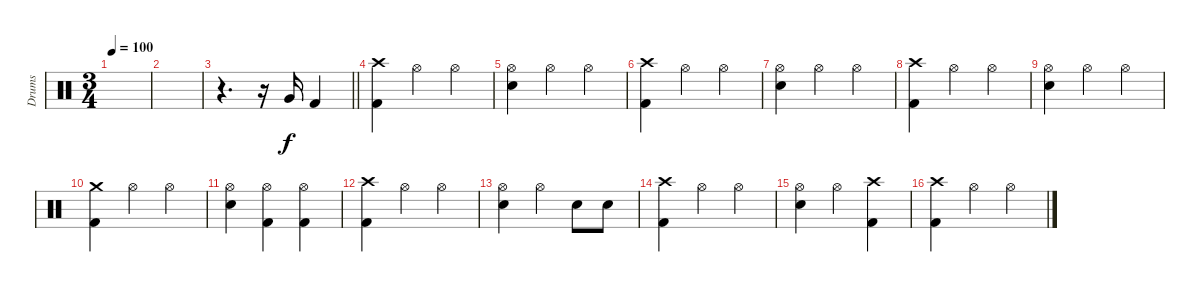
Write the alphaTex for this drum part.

\track ("Drums" "Drums") {instrument percussion}
\staff {score}
\articulation defaults
\ts (3 4)
\tempo 100
\clef neutral
\ks c
|
|
\barLineRight lightlight
r.4{d} r.16 "Very Low Tom (hit)".16 "Kick (hit) 2".4 |
("Crash high (hit)" "Kick (hit) 2").4 "Hi-Hat (open)".4 "Hi-Hat (open)".4 |
("Hi-Hat (open)" "Snare (hit) 2").4 "Hi-Hat (open)".4 "Hi-Hat (open)".4 |
("Crash high (hit)" "Kick (hit) 2").4 "Hi-Hat (open)".4 "Hi-Hat (open)".4 |
("Hi-Hat (open)" "Snare (hit) 2").4 "Hi-Hat (open)".4 "Hi-Hat (open)".4 |
("Crash high (hit)" "Kick (hit) 2").4 "Hi-Hat (open)".4 "Hi-Hat (open)".4 |
("Hi-Hat (open)" "Snare (hit) 2").4 "Hi-Hat (open)".4 "Hi-Hat (open)".4 |
("Crash medium (hit)" "Kick (hit) 2").4 "Hi-Hat (open)".4 "Hi-Hat (open)".4 |
("Hi-Hat (open)" "Snare (hit) 2").4 ("Hi-Hat (open)" "Kick (hit) 2").4 ("Hi-Hat (open)" "Kick (hit) 2").4 |
("Crash high (hit)" "Kick (hit) 2").4 "Hi-Hat (open)".4 "Hi-Hat (open)".4 |
("Hi-Hat (open)" "Snare (hit) 2").4 "Hi-Hat (open)".4 "Snare (hit) 2".8 "Snare (hit) 2".8 |
("Crash high (hit)" "Kick (hit) 2").4 "Hi-Hat (open)".4 "Hi-Hat (open)".4 |
("Hi-Hat (open)" "Snare (hit) 2").4 "Hi-Hat (open)".4 ("Crash high (hit)" "Kick (hit) 2").4 |
("Crash high (hit)" "Kick (hit) 2").4 "Hi-Hat (open)".4 "Hi-Hat (open)".4
